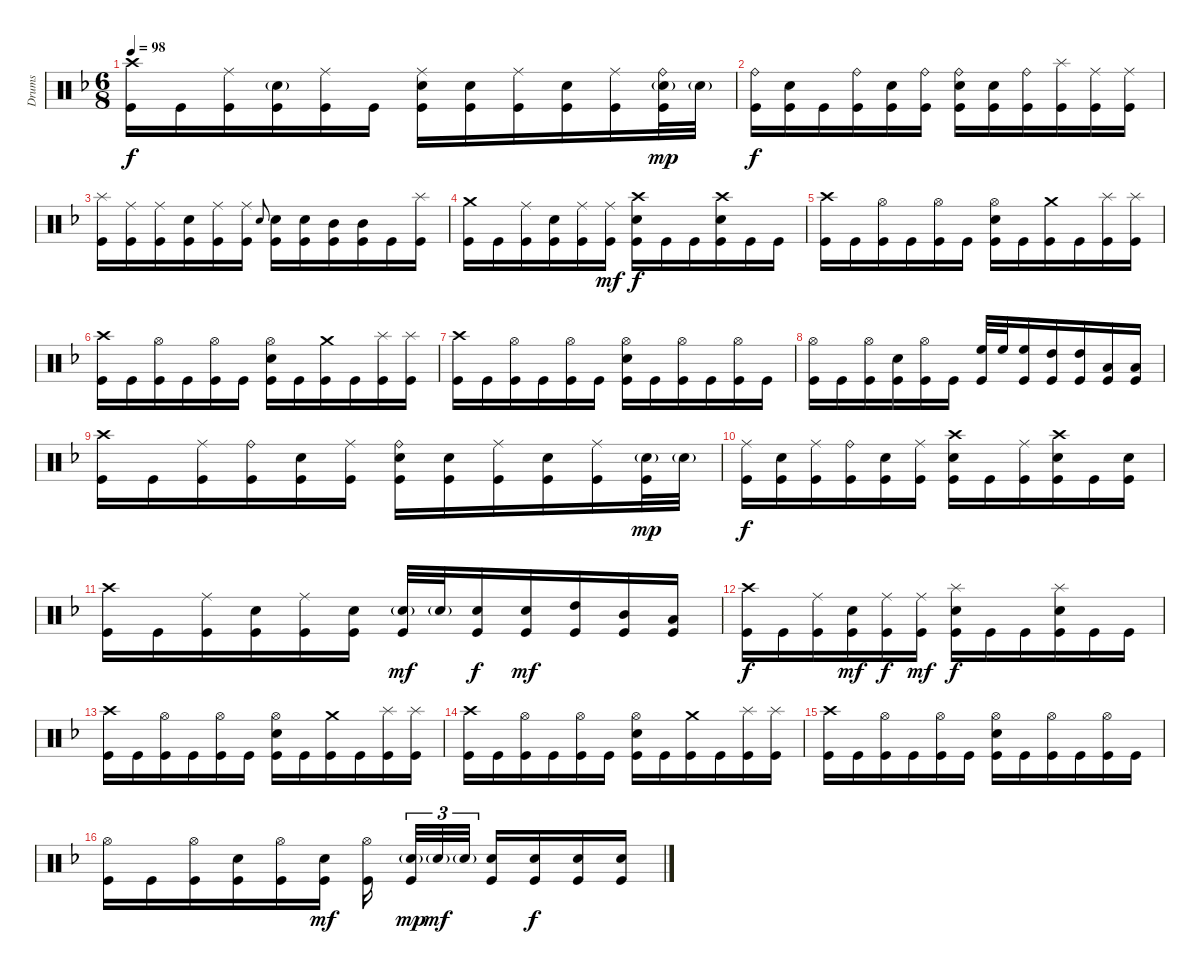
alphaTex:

\track ("Drums" "Drums") {instrument percussion bank 10}
\staff {score}
\articulation defaults
\ts (6 8)
\tempo 98
\clef neutral
\ks dminor
("Crash high (hit)" "Kick (hit)").16{dy f} "Kick (hit)".16 ("Ride (middle)" "Kick (hit)").16 ("Electric Snare (hit)"{g} "Kick (hit)").16 ("Ride (middle)" "Kick (hit)").16 "Kick (hit)".16 ("Ride (middle)" "Electric Snare (hit)" "Kick (hit)").16 ("Electric Snare (hit)" "Kick (hit)").16 ("Ride (middle)" "Kick (hit)").16 ("Electric Snare (hit)" "Kick (hit)").16 ("Ride (middle)" "Kick (hit)").16 ("Ride (bell)" "Electric Snare (hit)"{g} "Kick (hit)").32{dy mp} "Electric Snare (hit)"{g}.32 |
("Ride (bell)" "Kick (hit)").16{dy f} ("Electric Snare (hit)" "Kick (hit)").16 "Kick (hit)".16 ("Ride (bell)" "Kick (hit)").16 ("Electric Snare (hit)" "Kick (hit)").16 ("Ride (bell)" "Kick (hit)").16 ("Ride (bell)" "Electric Snare (hit)" "Kick (hit)").16 ("Electric Snare (hit)" "Kick (hit)").16 ("Ride (bell)" "Kick (hit)").16 ("Splash (hit)" "Kick (hit)").16 ("Ride (middle)" "Kick (hit)").16 ("Ride (middle)" "Kick (hit)").16 |
("Splash (hit)" "Kick (hit)").16 ("Ride (middle)" "Kick (hit)").16 ("Ride (middle)" "Kick (hit)").16 ("Electric Snare (hit)" "Kick (hit)").16 ("Ride (middle)" "Kick (hit)").16 ("Ride (middle)" "Kick (hit)").16 "Electric Snare (hit)".8{gr onbeat} ("Electric Snare (hit)" "Kick (hit)").16 ("Electric Snare (hit)" "Kick (hit)").16 ("Mid Tom (hit)" "Kick (hit)").16 ("Mid Tom (hit)" "Kick (hit)").16 "Kick (hit)".16 ("Splash (hit)" "Kick (hit)").16 |
("Crash medium (hit)" "Kick (hit)").16 "Kick (hit)".16 ("Ride (middle)" "Kick (hit)").16 ("Electric Snare (hit)" "Kick (hit)").16 ("Ride (middle)" "Kick (hit)").16 ("Ride (middle)" "Kick (hit)").16{dy mf} ("Crash high (hit)" "Electric Snare (hit)" "Kick (hit)").16{dy f} "Kick (hit)".16 "Kick (hit)".16 ("Crash high (hit)" "Electric Snare (hit)" "Kick (hit)").16 "Kick (hit)".16 "Kick (hit)".16 |
("Crash high (hit)" "Kick (hit)").16 "Kick (hit)".16 ("Hi-Hat (open)" "Kick (hit)").16 "Kick (hit)".16 ("Hi-Hat (open)" "Kick (hit)").16 "Kick (hit)".16 ("Hi-Hat (open)" "Electric Snare (hit)" "Kick (hit)").16 "Kick (hit)".16 ("Crash medium (hit)" "Kick (hit)").16 "Kick (hit)".16 ("Splash (hit)" "Kick (hit)").16 ("Splash (hit)" "Kick (hit)").16 |
("Crash high (hit)" "Kick (hit)").16 "Kick (hit)".16 ("Hi-Hat (open)" "Kick (hit)").16 "Kick (hit)".16 ("Hi-Hat (open)" "Kick (hit)").16 "Kick (hit)".16 ("Hi-Hat (open)" "Electric Snare (hit)" "Kick (hit)").16 "Kick (hit)".16 ("Crash medium (hit)" "Kick (hit)").16 "Kick (hit)".16 ("Splash (hit)" "Kick (hit)").16 ("Splash (hit)" "Kick (hit)").16 |
("Crash high (hit)" "Kick (hit)").16 "Kick (hit)".16 ("Hi-Hat (open)" "Kick (hit)").16 "Kick (hit)".16 ("Hi-Hat (open)" "Kick (hit)").16 "Kick (hit)".16 ("Hi-Hat (open)" "Electric Snare (hit)" "Kick (hit)").16 "Kick (hit)".16 ("Hi-Hat (open)" "Kick (hit)").16 "Kick (hit)".16 ("Hi-Hat (open)" "Kick (hit)").16 "Kick (hit)".16 |
("Hi-Hat (open)" "Kick (hit)").16 "Kick (hit)".16 ("Hi-Hat (open)" "Kick (hit)").16 ("Electric Snare (hit)" "Kick (hit)").16 ("Hi-Hat (open)" "Kick (hit)").16 "Kick (hit)".16 ("High Floor Tom (hit)" "Kick (hit)").32 "High Floor Tom (hit)".32 ("High Floor Tom (hit)" "Kick (hit)").16 ("High Tom (hit)" "Kick (hit)").16 ("High Tom (hit)" "Kick (hit)").16 ("Low Tom (hit)" "Kick (hit)").16 ("Low Tom (hit)" "Kick (hit)").16 |
("Crash high (hit)" "Kick (hit)").16 "Kick (hit)".16 ("Ride (middle)" "Kick (hit)").16 ("Ride (bell)" "Kick (hit)").16 ("Electric Snare (hit)" "Kick (hit)").16 ("Ride (middle)" "Kick (hit)").16 ("Ride (bell)" "Electric Snare (hit)" "Kick (hit)").16 ("Electric Snare (hit)" "Kick (hit)").16 ("Ride (middle)" "Kick (hit)").16 ("Electric Snare (hit)" "Kick (hit)").16 ("Ride (middle)" "Kick (hit)").16 ("Electric Snare (hit)"{g} "Kick (hit)").32{dy mp} "Electric Snare (hit)"{g}.32 |
("Ride (middle)" "Kick (hit)").16{dy f} ("Electric Snare (hit)" "Kick (hit)").16 ("Ride (middle)" "Kick (hit)").16 ("Ride (bell)" "Kick (hit)").16 ("Electric Snare (hit)" "Kick (hit)").16 ("Ride (middle)" "Kick (hit)").16 ("Crash high (hit)" "Electric Snare (hit)" "Kick (hit)").16 "Kick (hit)".16 ("Ride (middle)" "Kick (hit)").16 ("Crash high (hit)" "Electric Snare (hit)" "Kick (hit)").16 "Kick (hit)".16 ("Electric Snare (hit)" "Kick (hit)").16 |
("Crash high (hit)" "Kick (hit)").16 "Kick (hit)".16 ("Ride (middle)" "Kick (hit)").16 ("Electric Snare (hit)" "Kick (hit)").16 ("Ride (middle)" "Kick (hit)").16 ("Electric Snare (hit)" "Kick (hit)").16 ("Electric Snare (hit)"{g} "Kick (hit)").32{dy mf} "Electric Snare (hit)"{g}.32 ("Electric Snare (hit)" "Kick (hit)").16{dy f} ("Electric Snare (hit)" "Kick (hit)").16{dy mf} ("High Tom (hit)" "Kick (hit)").16 ("Mid Tom (hit)" "Kick (hit)").16 ("Low Tom (hit)" "Kick (hit)").16 |
("Crash high (hit)" "Kick (hit)").16{dy f} "Kick (hit)".16 ("Ride (middle)" "Kick (hit)").16 ("Electric Snare (hit)" "Kick (hit)").16{dy mf} ("Ride (middle)" "Kick (hit)").16{dy f} ("Ride (middle)" "Kick (hit)").16{dy mf} ("Splash (hit)" "Electric Snare (hit)" "Kick (hit)").16{dy f} "Kick (hit)".16 "Kick (hit)".16 ("Splash (hit)" "Electric Snare (hit)" "Kick (hit)").16 "Kick (hit)".16 "Kick (hit)".16 |
("Crash high (hit)" "Kick (hit)").16 "Kick (hit)".16 ("Hi-Hat (open)" "Kick (hit)").16 "Kick (hit)".16 ("Hi-Hat (open)" "Kick (hit)").16 "Kick (hit)".16 ("Hi-Hat (open)" "Electric Snare (hit)" "Kick (hit)").16 "Kick (hit)".16 ("Crash medium (hit)" "Kick (hit)").16 "Kick (hit)".16 ("Splash (hit)" "Kick (hit)").16 ("Splash (hit)" "Kick (hit)").16 |
("Crash high (hit)" "Kick (hit)").16 "Kick (hit)".16 ("Hi-Hat (open)" "Kick (hit)").16 "Kick (hit)".16 ("Hi-Hat (open)" "Kick (hit)").16 "Kick (hit)".16 ("Hi-Hat (open)" "Electric Snare (hit)" "Kick (hit)").16 "Kick (hit)".16 ("Crash medium (hit)" "Kick (hit)").16 "Kick (hit)".16 ("Splash (hit)" "Kick (hit)").16 ("Splash (hit)" "Kick (hit)").16 |
("Crash high (hit)" "Kick (hit)").16 "Kick (hit)".16 ("Hi-Hat (open)" "Kick (hit)").16 "Kick (hit)".16 ("Hi-Hat (open)" "Kick (hit)").16 "Kick (hit)".16 ("Hi-Hat (open)" "Electric Snare (hit)" "Kick (hit)").16 "Kick (hit)".16 ("Hi-Hat (open)" "Kick (hit)").16 "Kick (hit)".16 ("Hi-Hat (open)" "Kick (hit)").16 "Kick (hit)".16 |
("Hi-Hat (open)" "Kick (hit)").16 "Kick (hit)".16 ("Hi-Hat (open)" "Kick (hit)").16 ("Electric Snare (hit)" "Kick (hit)").16 ("Hi-Hat (open)" "Kick (hit)").16 ("Electric Snare (hit)" "Kick (hit)").16{dy mf} ("Hi-Hat (open)" "Kick (hit)").16{beam splitsecondary} ("Electric Snare (hit)"{g} "Kick (hit)").32{tu (3 2) dy mp} "Electric Snare (hit)"{g}.32{tu (3 2) dy mf} "Electric Snare (hit)"{g}.32{tu (3 2) beam splitsecondary} ("Electric Snare (hit)" "Kick (hit)").16 ("Electric Snare (hit)" "Kick (hit)").16{dy f} ("Electric Snare (hit)" "Kick (hit)").16 ("Electric Snare (hit)" "Kick (hit)").16
